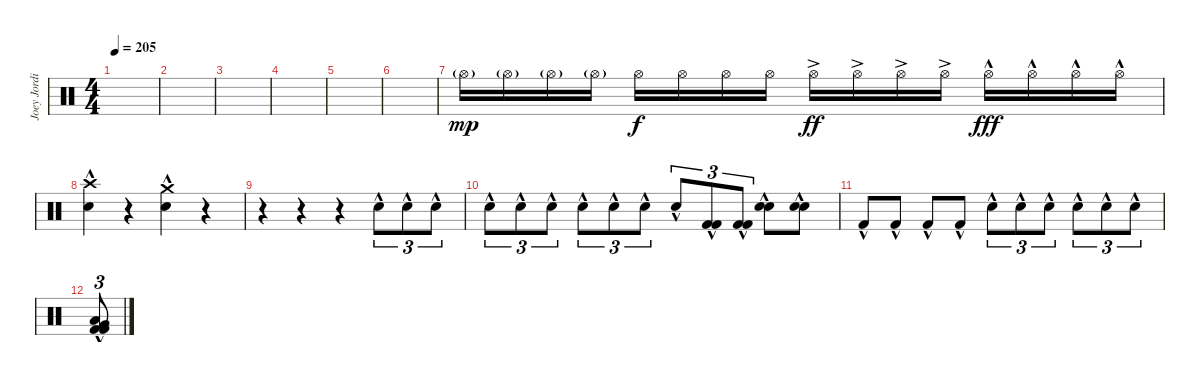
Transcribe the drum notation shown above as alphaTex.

\track ("Joey Jordison" "Joey Jordi") {instrument percussion}
\staff {score}
\articulation defaults
\ts (4 4)
\tempo 205
\clef neutral
\ks c
|
|
|
|
|
|
"Hi-Hat (open)"{g}.16{dy mp volume 4} "Hi-Hat (open)"{g}.16 "Hi-Hat (open)"{g}.16{volume 5} "Hi-Hat (open)"{g}.16 "Hi-Hat (open)".16{dy f volume 6} "Hi-Hat (open)".16 "Hi-Hat (open)".16{volume 7} "Hi-Hat (open)".16 "Hi-Hat (open)"{ac}.16{dy ff volume 8} "Hi-Hat (open)"{ac}.16 "Hi-Hat (open)"{ac}.16{volume 8} "Hi-Hat (open)"{ac}.16 "Hi-Hat (open)"{hac}.16{dy fff volume 10} "Hi-Hat (open)"{hac}.16 "Hi-Hat (open)"{hac}.16{volume 15} "Hi-Hat (open)"{hac}.16 |
("Crash high (hit)"{hac} "Electric Snare (hit)"{hac}).4{volume 8} r.4 ("Crash medium (hit)"{hac} "Electric Snare (hit)"{hac}).4 r.4 |
r.4 r.4 r.4 "Electric Snare (hit)"{hac}.8{tu (3 2)} "Electric Snare (hit)"{hac}.8{tu (3 2)} "Electric Snare (hit)"{hac}.8{tu (3 2)} |
"Electric Snare (hit)"{hac}.8{tu (3 2)} "Electric Snare (hit)"{hac}.8{tu (3 2)} "Electric Snare (hit)"{hac}.8{tu (3 2)} "Electric Snare (hit)"{hac}.8{tu (3 2)} "Electric Snare (hit)"{hac}.8{tu (3 2)} "Electric Snare (hit)"{hac}.8{tu (3 2)} "Electric Snare (hit)"{hac}.8{tu (3 2)} ("Kick (hit) 2"{hac} "Kick (hit) 2"{hac}).8{tu (3 2)} ("Kick (hit) 2"{hac} "Kick (hit) 2"{hac}).8{tu (3 2)} ("Electric Snare (hit)"{hac} "Electric Snare (hit)"{hac}).8 ("Electric Snare (hit)"{hac} "Electric Snare (hit)"{hac}).8 |
"Kick (hit) 2"{hac}.8 "Kick (hit) 2"{hac}.8 "Kick (hit) 2"{hac}.8 "Kick (hit) 2"{hac}.8 "Electric Snare (hit)"{hac}.8{tu (3 2)} "Electric Snare (hit)"{hac}.8{tu (3 2)} "Electric Snare (hit)"{hac}.8{tu (3 2)} "Electric Snare (hit)"{hac}.8{tu (3 2)} "Electric Snare (hit)"{hac}.8{tu (3 2)} "Electric Snare (hit)"{hac}.8{tu (3 2)} |
("Very Low Tom (hit)"{hac} "Low Floor Tom (hit)"{hac} "Kick (hit) 2"{hac} "Kick (hit) 2"{hac}).8{tu (3 2)}
